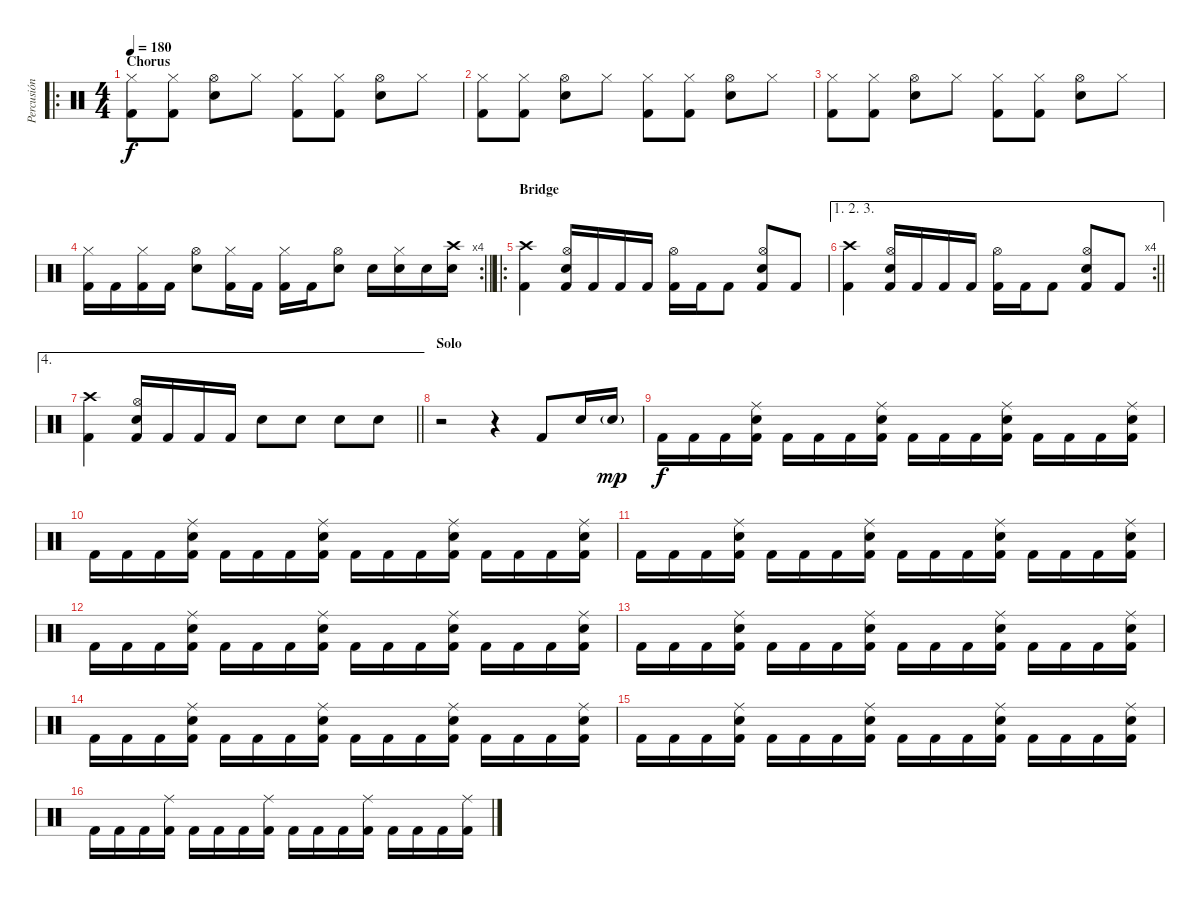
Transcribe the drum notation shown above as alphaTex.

\track ("Percusión" "Percusión") {instrument percussion}
\staff {score}
\articulation defaults
\ro
\ts (4 4)
\section ("" "Chorus")
\tempo 180
\clef neutral
\ks c
("Hi-Hat (closed)" "Kick (hit) 2").8{dy f} ("Hi-Hat (closed)" "Kick (hit) 2").8 ("Hi-Hat (open)" "Snare (hit) 2").8 "Hi-Hat (closed)".8 ("Hi-Hat (closed)" "Kick (hit) 2").8 ("Hi-Hat (closed)" "Kick (hit) 2").8 ("Hi-Hat (open)" "Snare (hit) 2").8 "Hi-Hat (closed)".8 |
("Hi-Hat (closed)" "Kick (hit) 2").8 ("Hi-Hat (closed)" "Kick (hit) 2").8 ("Hi-Hat (open)" "Snare (hit) 2").8 "Hi-Hat (closed)".8 ("Hi-Hat (closed)" "Kick (hit) 2").8 ("Hi-Hat (closed)" "Kick (hit) 2").8 ("Hi-Hat (open)" "Snare (hit) 2").8 "Hi-Hat (closed)".8 |
("Hi-Hat (closed)" "Kick (hit) 2").8 ("Hi-Hat (closed)" "Kick (hit) 2").8 ("Hi-Hat (open)" "Snare (hit) 2").8 "Hi-Hat (closed)".8 ("Hi-Hat (closed)" "Kick (hit) 2").8 ("Hi-Hat (closed)" "Kick (hit) 2").8 ("Hi-Hat (open)" "Snare (hit) 2").8 "Hi-Hat (closed)".8 |
\rc 4
\barLineRight lightlight
("Hi-Hat (closed)" "Kick (hit) 2").16 "Kick (hit) 2".16 ("Hi-Hat (closed)" "Kick (hit) 2").16 "Kick (hit) 2".16 ("Hi-Hat (open)" "Snare (hit) 2").8 ("Hi-Hat (closed)" "Kick (hit) 2").16 "Kick (hit) 2".16 ("Hi-Hat (closed)" "Kick (hit) 2").16 "Kick (hit) 2".16 ("Hi-Hat (open)" "Snare (hit) 2").8 "Snare (hit) 2".16 ("Hi-Hat (closed)" "Snare (hit) 2").16 "Snare (hit) 2".16 ("Crash high (hit)" "Snare (hit) 2").16 |
\ro
\section ("" "Bridge")
("Crash high (hit)" "Kick (hit) 2").4 ("Hi-Hat (open)" "Snare (hit) 2" "Kick (hit) 2").16 "Kick (hit) 2".16 "Kick (hit) 2".16 "Kick (hit) 2".16 ("Hi-Hat (open)" "Kick (hit) 2").16 "Kick (hit) 2".16 "Kick (hit) 2".8 ("Hi-Hat (open)" "Snare (hit) 2" "Kick (hit) 2").8 "Kick (hit) 2".8 |
\ae (1 2 3)
\rc 4
\barLineRight lightlight
("Crash high (hit)" "Kick (hit) 2").4 ("Hi-Hat (open)" "Snare (hit) 2" "Kick (hit) 2").16 "Kick (hit) 2".16 "Kick (hit) 2".16 "Kick (hit) 2".16 ("Hi-Hat (open)" "Kick (hit) 2").16 "Kick (hit) 2".16 "Kick (hit) 2".8 ("Hi-Hat (open)" "Snare (hit) 2" "Kick (hit) 2").8 "Kick (hit) 2".8 |
\ae 4
\barLineRight lightlight
("Crash high (hit)" "Kick (hit) 2").4 ("Hi-Hat (open)" "Snare (hit) 2" "Kick (hit) 2").16 "Kick (hit) 2".16 "Kick (hit) 2".16 "Kick (hit) 2".16 "Snare (hit) 2".8 "Snare (hit) 2".8 "Snare (hit) 2".8 "Snare (hit) 2".8 |
\section ("" "Solo")
r.2 r.4 "Kick (hit) 2".8 "Snare (hit) 2".16 "Snare (hit) 2"{g}.16{dy mp} |
"Kick (hit) 2".16{dy f} "Kick (hit) 2".16 "Kick (hit) 2".16 ("Ride (middle)" "Snare (hit) 2" "Kick (hit) 2").16 "Kick (hit) 2".16 "Kick (hit) 2".16 "Kick (hit) 2".16 ("Ride (middle)" "Snare (hit) 2" "Kick (hit) 2").16 "Kick (hit) 2".16 "Kick (hit) 2".16 "Kick (hit) 2".16 ("Ride (middle)" "Snare (hit) 2" "Kick (hit) 2").16 "Kick (hit) 2".16 "Kick (hit) 2".16 "Kick (hit) 2".16 ("Ride (middle)" "Snare (hit) 2" "Kick (hit) 2").16 |
"Kick (hit) 2".16 "Kick (hit) 2".16 "Kick (hit) 2".16 ("Ride (middle)" "Snare (hit) 2" "Kick (hit) 2").16 "Kick (hit) 2".16 "Kick (hit) 2".16 "Kick (hit) 2".16 ("Ride (middle)" "Snare (hit) 2" "Kick (hit) 2").16 "Kick (hit) 2".16 "Kick (hit) 2".16 "Kick (hit) 2".16 ("Ride (middle)" "Snare (hit) 2" "Kick (hit) 2").16 "Kick (hit) 2".16 "Kick (hit) 2".16 "Kick (hit) 2".16 ("Ride (middle)" "Snare (hit) 2" "Kick (hit) 2").16 |
"Kick (hit) 2".16 "Kick (hit) 2".16 "Kick (hit) 2".16 ("Ride (middle)" "Snare (hit) 2" "Kick (hit) 2").16 "Kick (hit) 2".16 "Kick (hit) 2".16 "Kick (hit) 2".16 ("Ride (middle)" "Snare (hit) 2" "Kick (hit) 2").16 "Kick (hit) 2".16 "Kick (hit) 2".16 "Kick (hit) 2".16 ("Ride (middle)" "Snare (hit) 2" "Kick (hit) 2").16 "Kick (hit) 2".16 "Kick (hit) 2".16 "Kick (hit) 2".16 ("Ride (middle)" "Snare (hit) 2" "Kick (hit) 2").16 |
"Kick (hit) 2".16 "Kick (hit) 2".16 "Kick (hit) 2".16 ("Ride (middle)" "Snare (hit) 2" "Kick (hit) 2").16 "Kick (hit) 2".16 "Kick (hit) 2".16 "Kick (hit) 2".16 ("Ride (middle)" "Snare (hit) 2" "Kick (hit) 2").16 "Kick (hit) 2".16 "Kick (hit) 2".16 "Kick (hit) 2".16 ("Ride (middle)" "Snare (hit) 2" "Kick (hit) 2").16 "Kick (hit) 2".16 "Kick (hit) 2".16 "Kick (hit) 2".16 ("Ride (middle)" "Snare (hit) 2" "Kick (hit) 2").16 |
"Kick (hit) 2".16 "Kick (hit) 2".16 "Kick (hit) 2".16 ("Ride (middle)" "Snare (hit) 2" "Kick (hit) 2").16 "Kick (hit) 2".16 "Kick (hit) 2".16 "Kick (hit) 2".16 ("Ride (middle)" "Snare (hit) 2" "Kick (hit) 2").16 "Kick (hit) 2".16 "Kick (hit) 2".16 "Kick (hit) 2".16 ("Ride (middle)" "Snare (hit) 2" "Kick (hit) 2").16 "Kick (hit) 2".16 "Kick (hit) 2".16 "Kick (hit) 2".16 ("Ride (middle)" "Snare (hit) 2" "Kick (hit) 2").16 |
"Kick (hit) 2".16 "Kick (hit) 2".16 "Kick (hit) 2".16 ("Ride (middle)" "Snare (hit) 2" "Kick (hit) 2").16 "Kick (hit) 2".16 "Kick (hit) 2".16 "Kick (hit) 2".16 ("Ride (middle)" "Snare (hit) 2" "Kick (hit) 2").16 "Kick (hit) 2".16 "Kick (hit) 2".16 "Kick (hit) 2".16 ("Ride (middle)" "Snare (hit) 2" "Kick (hit) 2").16 "Kick (hit) 2".16 "Kick (hit) 2".16 "Kick (hit) 2".16 ("Ride (middle)" "Snare (hit) 2" "Kick (hit) 2").16 |
"Kick (hit) 2".16 "Kick (hit) 2".16 "Kick (hit) 2".16 ("Ride (middle)" "Snare (hit) 2" "Kick (hit) 2").16 "Kick (hit) 2".16 "Kick (hit) 2".16 "Kick (hit) 2".16 ("Ride (middle)" "Snare (hit) 2" "Kick (hit) 2").16 "Kick (hit) 2".16 "Kick (hit) 2".16 "Kick (hit) 2".16 ("Ride (middle)" "Snare (hit) 2" "Kick (hit) 2").16 "Kick (hit) 2".16 "Kick (hit) 2".16 "Kick (hit) 2".16 ("Ride (middle)" "Snare (hit) 2" "Kick (hit) 2").16 |
"Kick (hit) 2".16 "Kick (hit) 2".16 "Kick (hit) 2".16 ("Ride (middle)" "Kick (hit) 2").16 "Kick (hit) 2".16 "Kick (hit) 2".16 "Kick (hit) 2".16 ("Ride (middle)" "Kick (hit) 2").16 "Kick (hit) 2".16 "Kick (hit) 2".16 "Kick (hit) 2".16 ("Ride (middle)" "Kick (hit) 2").16 "Kick (hit) 2".16 "Kick (hit) 2".16 "Kick (hit) 2".16 ("Ride (middle)" "Kick (hit) 2").16
